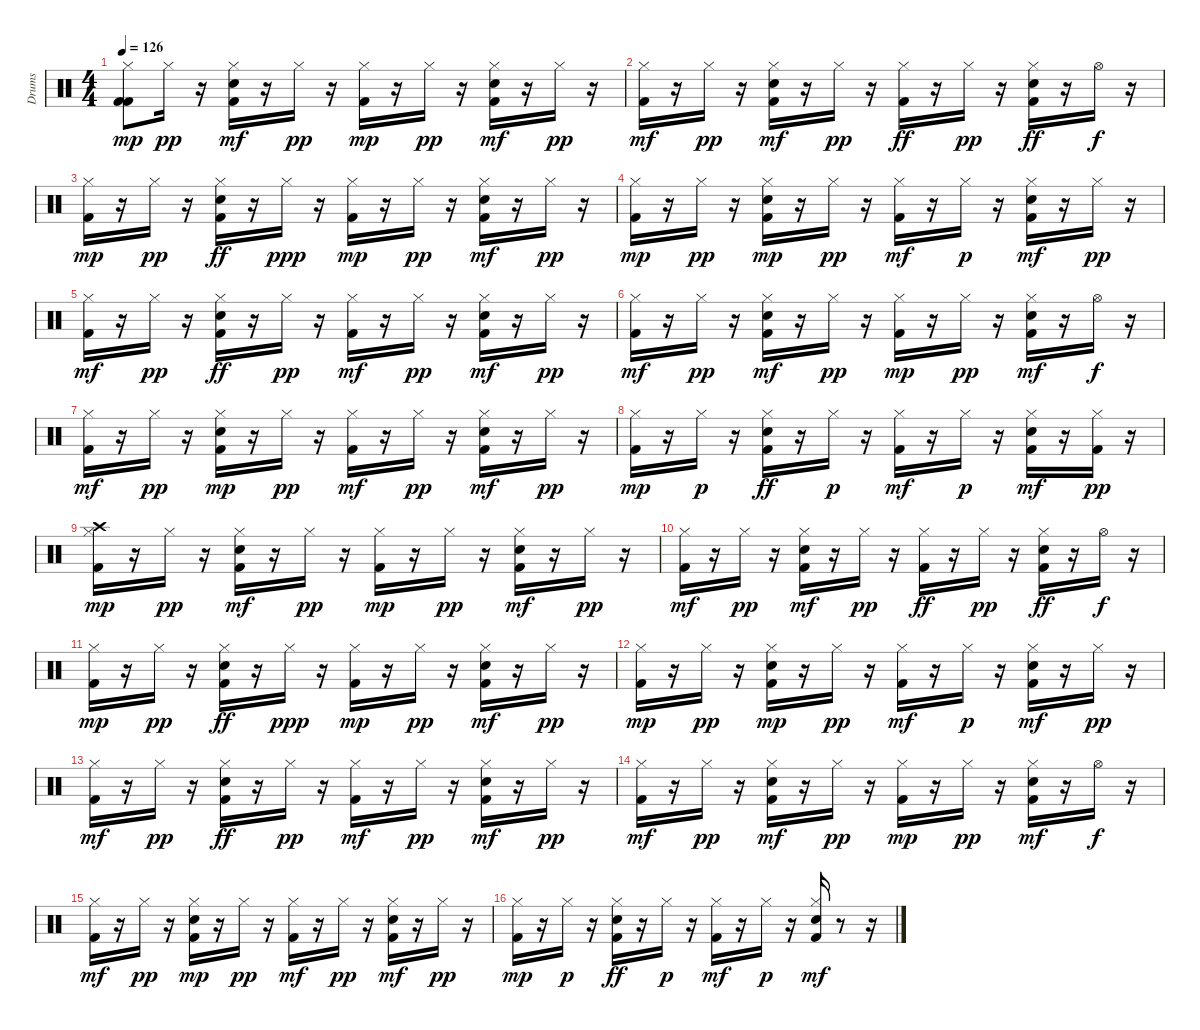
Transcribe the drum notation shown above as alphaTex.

\track ("Drums" "Drums") {instrument percussion}
\staff {score}
\articulation defaults
\ts (4 4)
\tempo 126
\clef neutral
\ks c
("Kick (hit) 2" "Hi-Hat (closed)" "Kick (hit) 2").8{dy mp} "Hi-Hat (closed)".16{dy pp} r.16 ("Hi-Hat (closed)" "Snare (hit) 2" "Kick (hit) 2").16{dy mf} r.16 "Hi-Hat (closed)".16{dy pp} r.16 ("Hi-Hat (closed)" "Kick (hit) 2").16{dy mp} r.16 "Hi-Hat (closed)".16{dy pp} r.16 ("Hi-Hat (closed)" "Snare (hit) 2" "Kick (hit) 2").16{dy mf} r.16 "Hi-Hat (closed)".16{dy pp} r.16 |
("Kick (hit) 2" "Hi-Hat (closed)").16{dy mf} r.16 "Hi-Hat (closed)".16{dy pp} r.16 ("Snare (hit) 2" "Hi-Hat (closed)" "Kick (hit) 2").16{dy mf} r.16 "Hi-Hat (closed)".16{dy pp} r.16 ("Kick (hit) 2" "Hi-Hat (closed)").16{dy ff} r.16 "Hi-Hat (closed)".16{dy pp} r.16 ("Kick (hit) 2" "Snare (hit) 2" "Hi-Hat (closed)").16{dy ff} r.16 "Hi-Hat (open)".16{dy f} r.16 |
("Kick (hit) 2" "Hi-Hat (closed)").16{dy mp} r.16 "Hi-Hat (closed)".16{dy pp} r.16 ("Kick (hit) 2" "Hi-Hat (closed)" "Snare (hit) 2").16{dy ff} r.16 "Hi-Hat (closed)".16{dy ppp} r.16 ("Kick (hit) 2" "Hi-Hat (closed)").16{dy mp} r.16 "Hi-Hat (closed)".16{dy pp} r.16 ("Kick (hit) 2" "Snare (hit) 2" "Hi-Hat (closed)").16{dy mf} r.16 "Hi-Hat (closed)".16{dy pp} r.16 |
("Kick (hit) 2" "Hi-Hat (closed)").16{dy mp} r.16 "Hi-Hat (closed)".16{dy pp} r.16 ("Kick (hit) 2" "Hi-Hat (closed)" "Snare (hit) 2").16{dy mp} r.16 "Hi-Hat (closed)".16{dy pp} r.16 ("Kick (hit) 2" "Hi-Hat (closed)").16{dy mf} r.16 "Hi-Hat (closed)".16{dy p} r.16 ("Kick (hit) 2" "Snare (hit) 2" "Hi-Hat (closed)").16{dy mf} r.16 "Hi-Hat (closed)".16{dy pp} r.16 |
("Kick (hit) 2" "Hi-Hat (closed)").16{dy mf} r.16 "Hi-Hat (closed)".16{dy pp} r.16 ("Hi-Hat (closed)" "Kick (hit) 2" "Snare (hit) 2").16{dy ff} r.16 "Hi-Hat (closed)".16{dy pp} r.16 ("Kick (hit) 2" "Hi-Hat (closed)").16{dy mf} r.16 "Hi-Hat (closed)".16{dy pp} r.16 ("Hi-Hat (closed)" "Kick (hit) 2" "Snare (hit) 2").16{dy mf} r.16 "Hi-Hat (closed)".16{dy pp} r.16 |
("Hi-Hat (closed)" "Kick (hit) 2").16{dy mf} r.16 "Hi-Hat (closed)".16{dy pp} r.16 ("Snare (hit) 2" "Hi-Hat (closed)" "Kick (hit) 2").16{dy mf} r.16 "Hi-Hat (closed)".16{dy pp} r.16 ("Kick (hit) 2" "Hi-Hat (closed)").16{dy mp} r.16 "Hi-Hat (closed)".16{dy pp} r.16 ("Kick (hit) 2" "Snare (hit) 2" "Hi-Hat (closed)").16{dy mf} r.16 "Hi-Hat (open)".16{dy f} r.16 |
("Kick (hit) 2" "Hi-Hat (closed)").16{dy mf} r.16 "Hi-Hat (closed)".16{dy pp} r.16 ("Snare (hit) 2" "Hi-Hat (closed)" "Kick (hit) 2").16{dy mp} r.16 "Hi-Hat (closed)".16{dy pp} r.16 ("Hi-Hat (closed)" "Kick (hit) 2").16{dy mf} r.16 "Hi-Hat (closed)".16{dy pp} r.16 ("Snare (hit) 2" "Hi-Hat (closed)" "Kick (hit) 2").16{dy mf} r.16 "Hi-Hat (closed)".16{dy pp} r.16 |
("Hi-Hat (closed)" "Kick (hit) 2").16{dy mp} r.16 "Hi-Hat (closed)".16{dy p} r.16 ("Kick (hit) 2" "Hi-Hat (closed)" "Snare (hit) 2").16{dy ff} r.16 "Hi-Hat (closed)".16{dy p} r.16 ("Kick (hit) 2" "Hi-Hat (closed)").16{dy mf} r.16 "Hi-Hat (closed)".16{dy p} r.16 ("Kick (hit) 2" "Hi-Hat (closed)" "Snare (hit) 2").16{dy mf} r.16 ("Kick (hit) 2" "Hi-Hat (closed)").16{dy pp} r.16 |
("Crash high (hit)" "Hi-Hat (closed)" "Kick (hit) 2").16{dy mp} r.16 "Hi-Hat (closed)".16{dy pp} r.16 ("Hi-Hat (closed)" "Snare (hit) 2" "Kick (hit) 2").16{dy mf} r.16 "Hi-Hat (closed)".16{dy pp} r.16 ("Hi-Hat (closed)" "Kick (hit) 2").16{dy mp} r.16 "Hi-Hat (closed)".16{dy pp} r.16 ("Hi-Hat (closed)" "Snare (hit) 2" "Kick (hit) 2").16{dy mf} r.16 "Hi-Hat (closed)".16{dy pp} r.16 |
("Kick (hit) 2" "Hi-Hat (closed)").16{dy mf} r.16 "Hi-Hat (closed)".16{dy pp} r.16 ("Snare (hit) 2" "Hi-Hat (closed)" "Kick (hit) 2").16{dy mf} r.16 "Hi-Hat (closed)".16{dy pp} r.16 ("Kick (hit) 2" "Hi-Hat (closed)").16{dy ff} r.16 "Hi-Hat (closed)".16{dy pp} r.16 ("Kick (hit) 2" "Snare (hit) 2" "Hi-Hat (closed)").16{dy ff} r.16 "Hi-Hat (open)".16{dy f} r.16 |
("Kick (hit) 2" "Hi-Hat (closed)").16{dy mp} r.16 "Hi-Hat (closed)".16{dy pp} r.16 ("Kick (hit) 2" "Hi-Hat (closed)" "Snare (hit) 2").16{dy ff} r.16 "Hi-Hat (closed)".16{dy ppp} r.16 ("Kick (hit) 2" "Hi-Hat (closed)").16{dy mp} r.16 "Hi-Hat (closed)".16{dy pp} r.16 ("Kick (hit) 2" "Snare (hit) 2" "Hi-Hat (closed)").16{dy mf} r.16 "Hi-Hat (closed)".16{dy pp} r.16 |
("Kick (hit) 2" "Hi-Hat (closed)").16{dy mp} r.16 "Hi-Hat (closed)".16{dy pp} r.16 ("Kick (hit) 2" "Hi-Hat (closed)" "Snare (hit) 2").16{dy mp} r.16 "Hi-Hat (closed)".16{dy pp} r.16 ("Kick (hit) 2" "Hi-Hat (closed)").16{dy mf} r.16 "Hi-Hat (closed)".16{dy p} r.16 ("Kick (hit) 2" "Snare (hit) 2" "Hi-Hat (closed)").16{dy mf} r.16 "Hi-Hat (closed)".16{dy pp} r.16 |
("Kick (hit) 2" "Hi-Hat (closed)").16{dy mf} r.16 "Hi-Hat (closed)".16{dy pp} r.16 ("Hi-Hat (closed)" "Kick (hit) 2" "Snare (hit) 2").16{dy ff} r.16 "Hi-Hat (closed)".16{dy pp} r.16 ("Kick (hit) 2" "Hi-Hat (closed)").16{dy mf} r.16 "Hi-Hat (closed)".16{dy pp} r.16 ("Hi-Hat (closed)" "Kick (hit) 2" "Snare (hit) 2").16{dy mf} r.16 "Hi-Hat (closed)".16{dy pp} r.16 |
("Hi-Hat (closed)" "Kick (hit) 2").16{dy mf} r.16 "Hi-Hat (closed)".16{dy pp} r.16 ("Snare (hit) 2" "Hi-Hat (closed)" "Kick (hit) 2").16{dy mf} r.16 "Hi-Hat (closed)".16{dy pp} r.16 ("Kick (hit) 2" "Hi-Hat (closed)").16{dy mp} r.16 "Hi-Hat (closed)".16{dy pp} r.16 ("Kick (hit) 2" "Snare (hit) 2" "Hi-Hat (closed)").16{dy mf} r.16 "Hi-Hat (open)".16{dy f} r.16 |
("Kick (hit) 2" "Hi-Hat (closed)").16{dy mf} r.16 "Hi-Hat (closed)".16{dy pp volume 0} r.16 ("Snare (hit) 2" "Hi-Hat (closed)" "Kick (hit) 2").16{dy mp} r.16 "Hi-Hat (closed)".16{dy pp} r.16 ("Hi-Hat (closed)" "Kick (hit) 2").16{dy mf} r.16 "Hi-Hat (closed)".16{dy pp} r.16 ("Snare (hit) 2" "Hi-Hat (closed)" "Kick (hit) 2").16{dy mf} r.16 "Hi-Hat (closed)".16{dy pp} r.16 |
("Hi-Hat (closed)" "Kick (hit) 2").16{dy mp} r.16 "Hi-Hat (closed)".16{dy p} r.16 ("Kick (hit) 2" "Hi-Hat (closed)" "Snare (hit) 2").16{dy ff} r.16 "Hi-Hat (closed)".16{dy p} r.16 ("Kick (hit) 2" "Hi-Hat (closed)").16{dy mf} r.16 "Hi-Hat (closed)".16{dy p} r.16 ("Kick (hit) 2" "Hi-Hat (closed)" "Snare (hit) 2").16{dy mf} r.8 r.16
